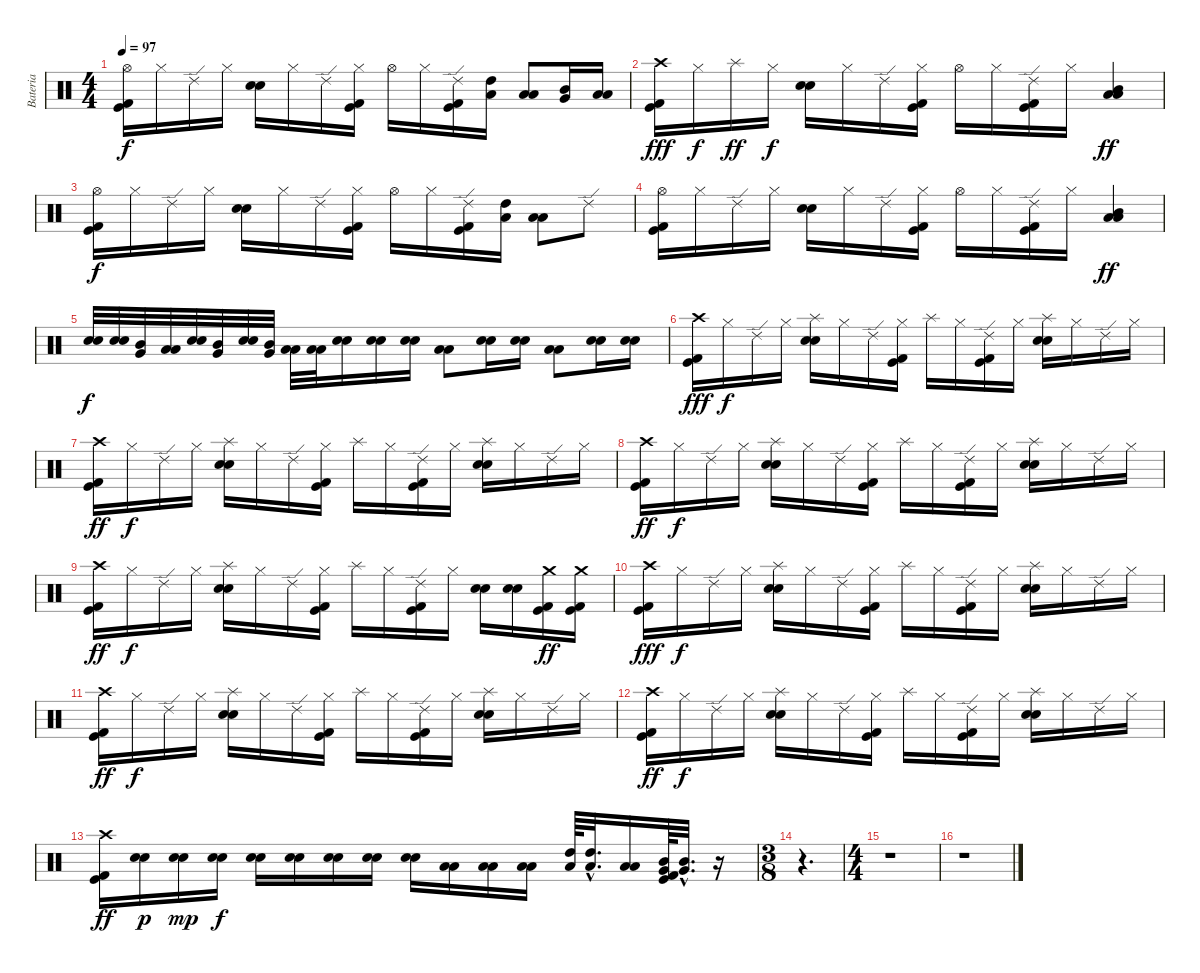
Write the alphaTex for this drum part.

\track ("Bateria" "Bateria") {instrument percussion}
\staff {score}
\articulation defaults
\ts (4 4)
\tempo 97
\clef neutral
\ks c
("Hi-Hat (open)" "Kick (hit) 2" "Kick (hit)").16{dy f} "Hi-Hat (closed)".16 "Ride (edge) 2".16 "Hi-Hat (closed)".16 ("Electric Snare (hit)" "Snare (hit) 2").16 "Hi-Hat (closed)".16 "Ride (edge) 2".16 ("Hi-Hat (closed)" "Kick (hit) 2" "Kick (hit)").16 "Hi-Hat (open)".16 "Hi-Hat (closed)".16 ("Ride (edge) 2" "Kick (hit) 2" "Kick (hit)").16 ("High Tom (hit)" "Low Tom (hit)").16 ("Low Tom (hit)" "Low Floor Tom (hit)").8 ("Mid Tom (hit)" "Very Low Tom (hit)").16 ("Low Tom (hit)" "Low Floor Tom (hit)").16 |
("Crash high (hit)" "Kick (hit) 2" "Kick (hit)").16{dy fff} "Hi-Hat (closed)".16{dy f} "Splash (hit)".16{dy ff} "Hi-Hat (closed)".16{dy f} ("Electric Snare (hit)" "Snare (hit) 2").16 "Hi-Hat (closed)".16 "Ride (edge) 2".16 ("Hi-Hat (closed)" "Kick (hit) 2" "Kick (hit)").16 "Hi-Hat (open)".16 "Hi-Hat (closed)".16 ("Ride (edge) 2" "Kick (hit) 2" "Kick (hit)").16 "Hi-Hat (closed)".16 ("Low Tom (hit)" "Low Floor Tom (hit)" "Mid Tom (hit)").4{dy ff} |
("Hi-Hat (open)" "Kick (hit) 2" "Kick (hit)").16{dy f} "Hi-Hat (closed)".16 "Ride (edge) 2".16 "Hi-Hat (closed)".16 ("Electric Snare (hit)" "Snare (hit) 2").16 "Hi-Hat (closed)".16 "Ride (edge) 2".16 ("Hi-Hat (closed)" "Kick (hit) 2" "Kick (hit)").16 "Hi-Hat (open)".16 "Hi-Hat (closed)".16 ("Ride (edge) 2" "Kick (hit) 2" "Kick (hit)").16 ("High Tom (hit)" "Low Tom (hit)").16 ("Low Tom (hit)" "Low Floor Tom (hit)").8 "Ride (edge) 2".8 |
("Hi-Hat (open)" "Kick (hit) 2" "Kick (hit)").16 "Hi-Hat (closed)".16 "Ride (edge) 2".16 "Hi-Hat (closed)".16 ("Electric Snare (hit)" "Snare (hit) 2").16 "Hi-Hat (closed)".16 "Ride (edge) 2".16 ("Hi-Hat (closed)" "Kick (hit) 2" "Kick (hit)").16 "Hi-Hat (open)".16 "Hi-Hat (closed)".16 ("Ride (edge) 2" "Kick (hit) 2" "Kick (hit)").16 "Hi-Hat (closed)".16 ("Low Tom (hit)" "Low Floor Tom (hit)" "Mid Tom (hit)").4{dy ff} |
("Electric Snare (hit)" "Snare (hit) 2").32{dy f} ("Electric Snare (hit)" "Snare (hit) 2").32 ("Mid Tom (hit)" "Very Low Tom (hit)").32 ("Low Tom (hit)" "Low Floor Tom (hit)").32 ("Electric Snare (hit)" "Snare (hit) 2").32 ("Mid Tom (hit)" "Very Low Tom (hit)").32 ("Electric Snare (hit)" "Snare (hit) 2").32 ("Mid Tom (hit)" "Very Low Tom (hit)").32 ("Low Tom (hit)" "Low Floor Tom (hit)").32 ("Low Tom (hit)" "Low Floor Tom (hit)").32 ("Electric Snare (hit)" "Snare (hit) 2").16 ("Electric Snare (hit)" "Snare (hit) 2").16 ("Electric Snare (hit)" "Snare (hit) 2").16 ("Low Tom (hit)" "Low Floor Tom (hit)").8 ("Electric Snare (hit)" "Snare (hit) 2").16 ("Electric Snare (hit)" "Snare (hit) 2").16 ("Low Tom (hit)" "Low Floor Tom (hit)").8 ("Electric Snare (hit)" "Snare (hit) 2").16 ("Electric Snare (hit)" "Snare (hit) 2").16 |
("Crash high (hit)" "Kick (hit) 2" "Kick (hit)").16{dy fff} "Hi-Hat (closed)".16{dy f} "Ride (edge) 2".16 "Hi-Hat (closed)".16 ("Splash (hit)" "Electric Snare (hit)" "Snare (hit) 2").16 "Hi-Hat (closed)".16 "Ride (edge) 2".16 ("Hi-Hat (closed)" "Kick (hit) 2" "Kick (hit)").16 "Splash (hit)".16 "Hi-Hat (closed)".16 ("Ride (edge) 2" "Kick (hit) 2" "Kick (hit)").16 "Hi-Hat (closed)".16 ("Splash (hit)" "Electric Snare (hit)" "Snare (hit) 2").16 "Hi-Hat (closed)".16 "Ride (edge) 2".16 "Hi-Hat (closed)".16 |
("Crash high (hit)" "Kick (hit) 2" "Kick (hit)").16{dy ff} "Hi-Hat (closed)".16{dy f} "Ride (edge) 2".16 "Hi-Hat (closed)".16 ("Splash (hit)" "Electric Snare (hit)" "Snare (hit) 2").16 "Hi-Hat (closed)".16 "Ride (edge) 2".16 ("Hi-Hat (closed)" "Kick (hit) 2" "Kick (hit)").16 "Splash (hit)".16 "Hi-Hat (closed)".16 ("Ride (edge) 2" "Kick (hit) 2" "Kick (hit)").16 "Hi-Hat (closed)".16 ("Splash (hit)" "Electric Snare (hit)" "Snare (hit) 2").16 "Hi-Hat (closed)".16 "Ride (edge) 2".16 "Hi-Hat (closed)".16 |
("Crash high (hit)" "Kick (hit) 2" "Kick (hit)").16{dy ff} "Hi-Hat (closed)".16{dy f} "Ride (edge) 2".16 "Hi-Hat (closed)".16 ("Splash (hit)" "Electric Snare (hit)" "Snare (hit) 2").16 "Hi-Hat (closed)".16 "Ride (edge) 2".16 ("Hi-Hat (closed)" "Kick (hit) 2" "Kick (hit)").16 "Splash (hit)".16 "Hi-Hat (closed)".16 ("Ride (edge) 2" "Kick (hit) 2" "Kick (hit)").16 "Hi-Hat (closed)".16 ("Splash (hit)" "Electric Snare (hit)" "Snare (hit) 2").16 "Hi-Hat (closed)".16 "Ride (edge) 2".16 "Hi-Hat (closed)".16 |
("Crash high (hit)" "Kick (hit) 2" "Kick (hit)").16{dy ff} "Hi-Hat (closed)".16{dy f} "Ride (edge) 2".16 "Hi-Hat (closed)".16 ("Splash (hit)" "Electric Snare (hit)" "Snare (hit) 2").16 "Hi-Hat (closed)".16 "Ride (edge) 2".16 ("Hi-Hat (closed)" "Kick (hit) 2" "Kick (hit)").16 "Splash (hit)".16 "Hi-Hat (closed)".16 ("Ride (edge) 2" "Kick (hit) 2" "Kick (hit)").16 "Hi-Hat (closed)".16 ("Electric Snare (hit)" "Snare (hit) 2").16 ("Electric Snare (hit)" "Snare (hit) 2").16 ("Crash medium (hit)" "Kick (hit) 2" "Kick (hit)").16{dy ff} ("Crash medium (hit)" "Kick (hit) 2" "Kick (hit)").16 |
("Crash high (hit)" "Kick (hit) 2" "Kick (hit)").16{dy fff} "Hi-Hat (closed)".16{dy f} "Ride (edge) 2".16 "Hi-Hat (closed)".16 ("Splash (hit)" "Electric Snare (hit)" "Snare (hit) 2").16 "Hi-Hat (closed)".16 "Ride (edge) 2".16 ("Hi-Hat (closed)" "Kick (hit) 2" "Kick (hit)").16 "Splash (hit)".16 "Hi-Hat (closed)".16 ("Ride (edge) 2" "Kick (hit) 2" "Kick (hit)").16 "Hi-Hat (closed)".16 ("Splash (hit)" "Electric Snare (hit)" "Snare (hit) 2").16 "Hi-Hat (closed)".16 "Ride (edge) 2".16 "Hi-Hat (closed)".16 |
("Crash high (hit)" "Kick (hit) 2" "Kick (hit)").16{dy ff} "Hi-Hat (closed)".16{dy f} "Ride (edge) 2".16 "Hi-Hat (closed)".16 ("Splash (hit)" "Electric Snare (hit)" "Snare (hit) 2").16 "Hi-Hat (closed)".16 "Ride (edge) 2".16 ("Hi-Hat (closed)" "Kick (hit) 2" "Kick (hit)").16 "Splash (hit)".16 "Hi-Hat (closed)".16 ("Ride (edge) 2" "Kick (hit) 2" "Kick (hit)").16 "Hi-Hat (closed)".16 ("Splash (hit)" "Electric Snare (hit)" "Snare (hit) 2").16 "Hi-Hat (closed)".16 "Ride (edge) 2".16 "Hi-Hat (closed)".16 |
("Crash high (hit)" "Kick (hit) 2" "Kick (hit)").16{dy ff} "Hi-Hat (closed)".16{dy f} "Ride (edge) 2".16 "Hi-Hat (closed)".16 ("Splash (hit)" "Electric Snare (hit)" "Snare (hit) 2").16 "Hi-Hat (closed)".16 "Ride (edge) 2".16 ("Hi-Hat (closed)" "Kick (hit) 2" "Kick (hit)").16 "Splash (hit)".16 "Hi-Hat (closed)".16 ("Ride (edge) 2" "Kick (hit) 2" "Kick (hit)").16 "Hi-Hat (closed)".16 ("Splash (hit)" "Electric Snare (hit)" "Snare (hit) 2").16 "Hi-Hat (closed)".16 "Ride (edge) 2".16 "Hi-Hat (closed)".16 |
("Crash high (hit)" "Kick (hit) 2" "Kick (hit)").16{dy ff} ("Electric Snare (hit)" "Snare (hit) 2").16{dy p} ("Electric Snare (hit)" "Snare (hit) 2").16{dy mp} ("Electric Snare (hit)" "Snare (hit) 2").16{dy f} ("Electric Snare (hit)" "Snare (hit) 2").16 ("Electric Snare (hit)" "Snare (hit) 2").16 ("Electric Snare (hit)" "Snare (hit) 2").16 ("Electric Snare (hit)" "Snare (hit) 2").16 ("Electric Snare (hit)" "Snare (hit) 2").16 ("Low Tom (hit)" "Low Floor Tom (hit)").16 ("Low Tom (hit)" "Low Floor Tom (hit)").16 ("Low Tom (hit)" "Low Floor Tom (hit)").16 ("High Tom (hit)" "Low Tom (hit)").64 ("High Tom (hit)"{hac} "Low Tom (hit)"{hac}).32{d} ("Low Tom (hit)" "Low Floor Tom (hit)").16 ("Mid Tom (hit)" "Very Low Tom (hit)" "Kick (hit) 2" "Kick (hit)").64 ("Mid Tom (hit)"{hac} "Very Low Tom (hit)"{hac}).32{d} r.16 |
\ts (3 8)
r.4{d} |
\ts (4 4)
r.1 |
r.1
